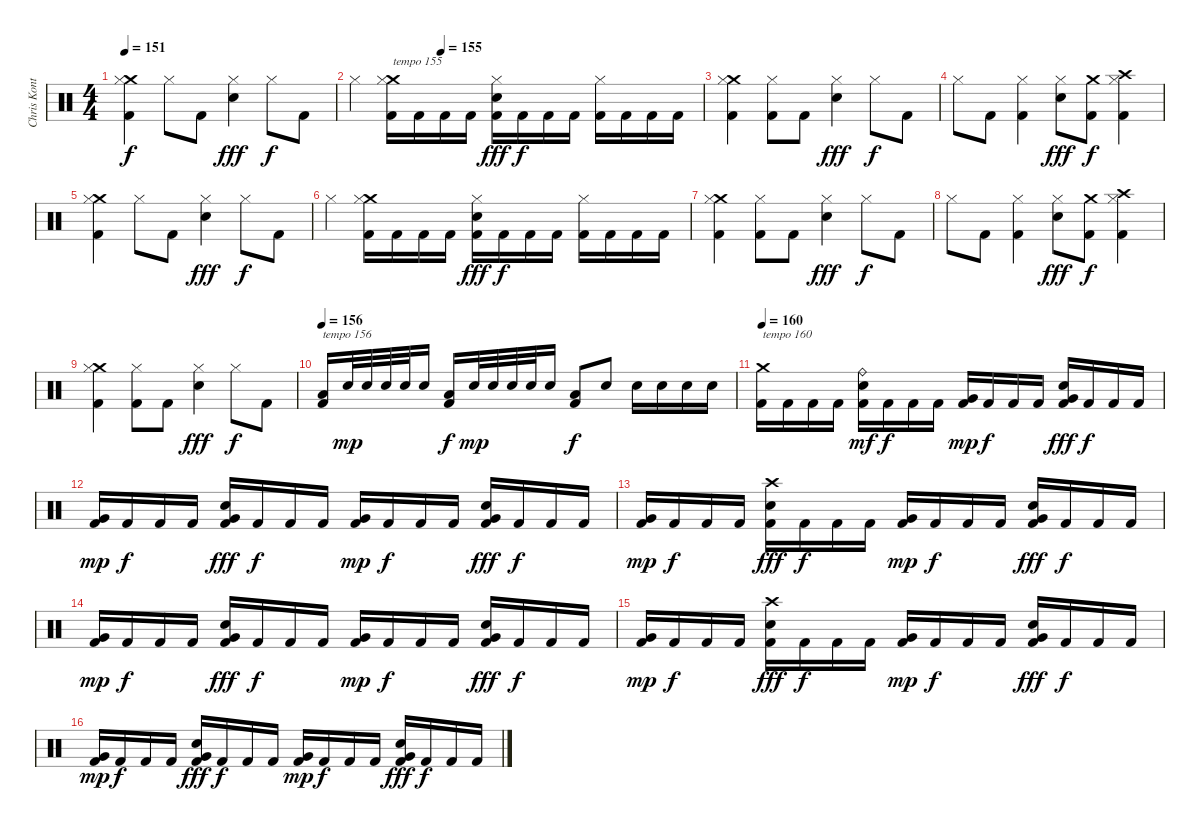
\track ("Chris Kontos" "Chris Kont") {instrument percussion}
\staff {score}
\articulation defaults
\ts (4 4)
\tempo 151
\clef neutral
\ks c
("Crash medium (hit)" "Hi-Hat (closed)" "Kick (hit) 2").4{dy f} "Hi-Hat (closed)".8 "Kick (hit) 2".8 ("Electric Snare (hit)" "Hi-Hat (closed)").4{dy fff} "Hi-Hat (closed)".8{dy f} "Kick (hit) 2".8 |
\tempo (155 0.25)
"Hi-Hat (closed)".4 ("Crash medium (hit)" "Hi-Hat (closed)" "Kick (hit) 2").16{txt "tempo 155"} "Kick (hit) 2".16 "Kick (hit) 2".16 "Kick (hit) 2".16 ("Electric Snare (hit)" "Hi-Hat (closed)" "Kick (hit) 2").16{dy fff} "Kick (hit) 2".16{dy f} "Kick (hit) 2".16 "Kick (hit) 2".16 ("Hi-Hat (closed)" "Kick (hit) 2").16 "Kick (hit) 2".16 "Kick (hit) 2".16 "Kick (hit) 2".16 |
("Crash medium (hit)" "Hi-Hat (closed)" "Kick (hit) 2").4 ("Hi-Hat (closed)" "Kick (hit) 2").8 "Kick (hit) 2".8 ("Electric Snare (hit)" "Hi-Hat (closed)").4{dy fff} "Hi-Hat (closed)".8{dy f} "Kick (hit) 2".8 |
"Hi-Hat (closed)".8 "Kick (hit) 2".8 ("Hi-Hat (closed)" "Kick (hit) 2").4 ("Electric Snare (hit)" "Hi-Hat (closed)").8{dy fff} ("Crash medium (hit)" "Kick (hit) 2").8{dy f} ("Crash high (hit)" "Hi-Hat (closed)" "Kick (hit) 2").4 |
("Crash medium (hit)" "Hi-Hat (closed)" "Kick (hit) 2").4 "Hi-Hat (closed)".8 "Kick (hit) 2".8 ("Electric Snare (hit)" "Hi-Hat (closed)").4{dy fff} "Hi-Hat (closed)".8{dy f} "Kick (hit) 2".8 |
"Hi-Hat (closed)".4 ("Crash medium (hit)" "Hi-Hat (closed)" "Kick (hit) 2").16 "Kick (hit) 2".16 "Kick (hit) 2".16 "Kick (hit) 2".16 ("Electric Snare (hit)" "Hi-Hat (closed)" "Kick (hit) 2").16{dy fff} "Kick (hit) 2".16{dy f} "Kick (hit) 2".16 "Kick (hit) 2".16 ("Hi-Hat (closed)" "Kick (hit) 2").16 "Kick (hit) 2".16 "Kick (hit) 2".16 "Kick (hit) 2".16 |
("Crash medium (hit)" "Hi-Hat (closed)" "Kick (hit) 2").4 ("Hi-Hat (closed)" "Kick (hit) 2").8 "Kick (hit) 2".8 ("Electric Snare (hit)" "Hi-Hat (closed)").4{dy fff} "Hi-Hat (closed)".8{dy f} "Kick (hit) 2".8 |
"Hi-Hat (closed)".8 "Kick (hit) 2".8 ("Hi-Hat (closed)" "Kick (hit) 2").4 ("Electric Snare (hit)" "Hi-Hat (closed)").8{dy fff} ("Crash medium (hit)" "Kick (hit) 2").8{dy f} ("Crash high (hit)" "Hi-Hat (closed)" "Kick (hit) 2").4 |
("Crash medium (hit)" "Hi-Hat (closed)" "Kick (hit) 2").4 ("Hi-Hat (closed)" "Kick (hit) 2").8 "Kick (hit) 2".8 ("Electric Snare (hit)" "Hi-Hat (closed)").4{dy fff} "Hi-Hat (closed)".8{dy f} "Kick (hit) 2".8 |
\tempo 156
("Low Tom (hit)" "Kick (hit) 2").16{txt "tempo 156"} "Electric Snare (hit)".32{dy mp} "Electric Snare (hit)".32 "Electric Snare (hit)".32 "Electric Snare (hit)".32 "Electric Snare (hit)".16 ("Low Tom (hit)" "Kick (hit) 2").16{dy f} "Electric Snare (hit)".32{dy mp} "Electric Snare (hit)".32 "Electric Snare (hit)".32 "Electric Snare (hit)".32 "Electric Snare (hit)".16 ("Low Tom (hit)" "Kick (hit) 2").8{dy f} "Electric Snare (hit)".8 "Electric Snare (hit)".16 "Electric Snare (hit)".16 "Electric Snare (hit)".16 "Electric Snare (hit)".16 |
\tempo 160
("Crash medium (hit)" "Kick (hit) 2").16{txt "tempo 160"} "Kick (hit) 2".16 "Kick (hit) 2".16 "Kick (hit) 2".16 ("Electric Snare (hit)" "Ride (bell)" "Kick (hit) 2").16{dy mf} "Kick (hit) 2".16{dy f} "Kick (hit) 2".16 "Kick (hit) 2".16 ("Very Low Tom (hit)" "Kick (hit) 2").16{dy mp} "Kick (hit) 2".16{dy f} "Kick (hit) 2".16 "Kick (hit) 2".16 ("Very Low Tom (hit)" "Electric Snare (hit)" "Kick (hit) 2").16{dy fff} "Kick (hit) 2".16{dy f} "Kick (hit) 2".16 "Kick (hit) 2".16 |
("Very Low Tom (hit)" "Kick (hit) 2").16{dy mp} "Kick (hit) 2".16{dy f} "Kick (hit) 2".16 "Kick (hit) 2".16 ("Very Low Tom (hit)" "Electric Snare (hit)" "Kick (hit) 2").16{dy fff} "Kick (hit) 2".16{dy f} "Kick (hit) 2".16 "Kick (hit) 2".16 ("Very Low Tom (hit)" "Kick (hit) 2").16{dy mp} "Kick (hit) 2".16{dy f} "Kick (hit) 2".16 "Kick (hit) 2".16 ("Very Low Tom (hit)" "Electric Snare (hit)" "Kick (hit) 2").16{dy fff} "Kick (hit) 2".16{dy f} "Kick (hit) 2".16 "Kick (hit) 2".16 |
("Very Low Tom (hit)" "Kick (hit) 2").16{dy mp} "Kick (hit) 2".16{dy f} "Kick (hit) 2".16 "Kick (hit) 2".16 ("Crash high (hit)" "Electric Snare (hit)" "Kick (hit) 2").16{dy fff} "Kick (hit) 2".16{dy f} "Kick (hit) 2".16 "Kick (hit) 2".16 ("Very Low Tom (hit)" "Kick (hit) 2").16{dy mp} "Kick (hit) 2".16{dy f} "Kick (hit) 2".16 "Kick (hit) 2".16 ("Very Low Tom (hit)" "Electric Snare (hit)" "Kick (hit) 2").16{dy fff} "Kick (hit) 2".16{dy f} "Kick (hit) 2".16 "Kick (hit) 2".16 |
("Very Low Tom (hit)" "Kick (hit) 2").16{dy mp} "Kick (hit) 2".16{dy f} "Kick (hit) 2".16 "Kick (hit) 2".16 ("Very Low Tom (hit)" "Electric Snare (hit)" "Kick (hit) 2").16{dy fff} "Kick (hit) 2".16{dy f} "Kick (hit) 2".16 "Kick (hit) 2".16 ("Very Low Tom (hit)" "Kick (hit) 2").16{dy mp} "Kick (hit) 2".16{dy f} "Kick (hit) 2".16 "Kick (hit) 2".16 ("Very Low Tom (hit)" "Electric Snare (hit)" "Kick (hit) 2").16{dy fff} "Kick (hit) 2".16{dy f} "Kick (hit) 2".16 "Kick (hit) 2".16 |
("Very Low Tom (hit)" "Kick (hit) 2").16{dy mp} "Kick (hit) 2".16{dy f} "Kick (hit) 2".16 "Kick (hit) 2".16 ("Crash high (hit)" "Electric Snare (hit)" "Kick (hit) 2").16{dy fff} "Kick (hit) 2".16{dy f} "Kick (hit) 2".16 "Kick (hit) 2".16 ("Very Low Tom (hit)" "Kick (hit) 2").16{dy mp} "Kick (hit) 2".16{dy f} "Kick (hit) 2".16 "Kick (hit) 2".16 ("Very Low Tom (hit)" "Electric Snare (hit)" "Kick (hit) 2").16{dy fff} "Kick (hit) 2".16{dy f} "Kick (hit) 2".16 "Kick (hit) 2".16 |
("Very Low Tom (hit)" "Kick (hit) 2").16{dy mp} "Kick (hit) 2".16{dy f} "Kick (hit) 2".16 "Kick (hit) 2".16 ("Very Low Tom (hit)" "Electric Snare (hit)" "Kick (hit) 2").16{dy fff} "Kick (hit) 2".16{dy f} "Kick (hit) 2".16 "Kick (hit) 2".16 ("Very Low Tom (hit)" "Kick (hit) 2").16{dy mp} "Kick (hit) 2".16{dy f} "Kick (hit) 2".16 "Kick (hit) 2".16 ("Very Low Tom (hit)" "Electric Snare (hit)" "Kick (hit) 2").16{dy fff} "Kick (hit) 2".16{dy f} "Kick (hit) 2".16 "Kick (hit) 2".16
